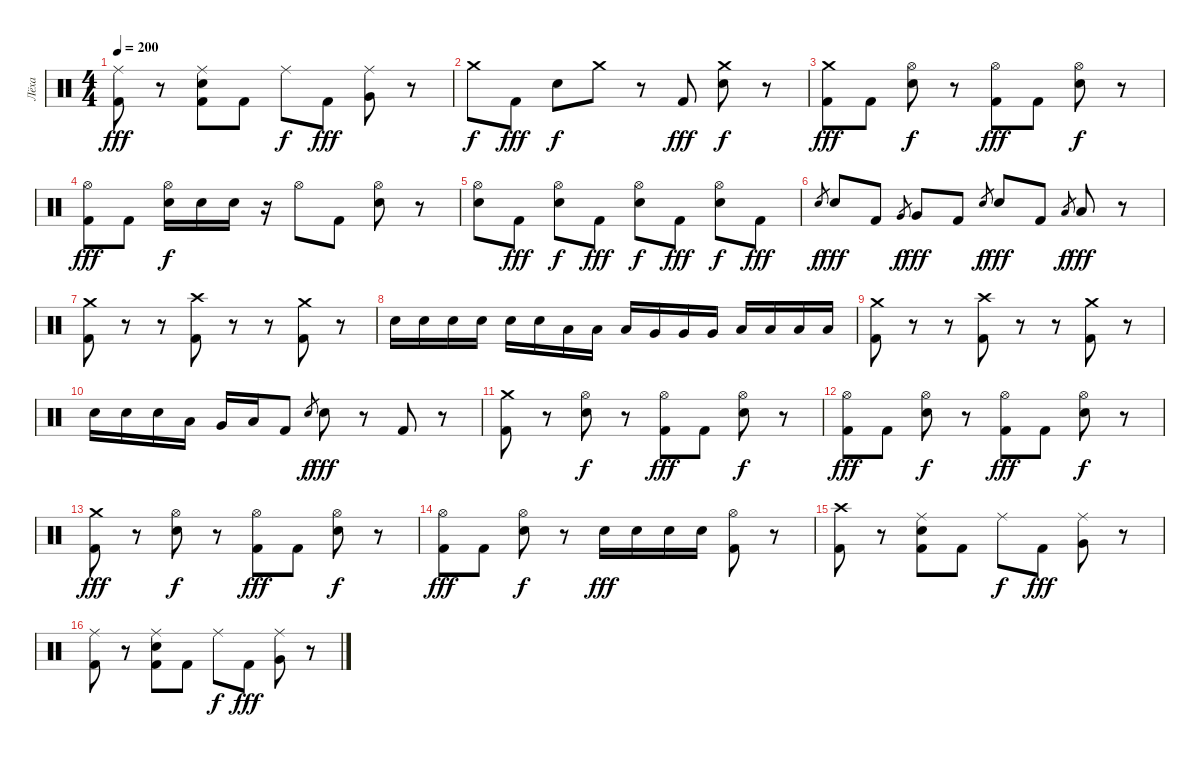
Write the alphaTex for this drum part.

\track ("Лёха" "Лёха") {instrument percussion}
\staff {score}
\articulation defaults
\ts (4 4)
\tempo 200
\clef neutral
\ks c
("Ride (middle)" "Kick (hit) 2").8{dy fff} r.8 ("Ride (middle)" "Electric Snare (hit)" "Kick (hit) 2").8 "Kick (hit) 2".8 "Ride (middle)".8{dy f} "Kick (hit) 2".8{dy fff} ("Ride (middle)" "Very Low Tom (hit)").8 r.8 |
"Crash medium (hit)".8{dy f} "Kick (hit) 2".8{dy fff} "Electric Snare (hit)".8{dy f} "Crash medium (hit)".8 r.8 "Kick (hit) 2".8{dy fff} ("Crash medium (hit)" "Electric Snare (hit)").8{dy f} r.8 |
("Crash medium (hit)" "Kick (hit) 2").8{dy fff} "Kick (hit) 2".8 ("Hi-Hat (open)" "Electric Snare (hit)").8{dy f} r.8 ("Hi-Hat (open)" "Kick (hit) 2").8{dy fff} "Kick (hit) 2".8 ("Hi-Hat (open)" "Electric Snare (hit)").8{dy f} r.8 |
("Hi-Hat (open)" "Kick (hit) 2").8{dy fff} "Kick (hit) 2".8 ("Hi-Hat (open)" "Electric Snare (hit)").16{dy f} "Electric Snare (hit)".16 "Electric Snare (hit)".16 r.16 "Hi-Hat (open)".8 "Kick (hit) 2".8 ("Hi-Hat (open)" "Electric Snare (hit)").8 r.8 |
("Hi-Hat (open)" "Electric Snare (hit)").8 "Kick (hit) 2".8{dy fff} ("Hi-Hat (open)" "Electric Snare (hit)").8{dy f} "Kick (hit) 2".8{dy fff} ("Hi-Hat (open)" "Electric Snare (hit)").8{dy f} "Kick (hit) 2".8{dy fff} ("Hi-Hat (open)" "Electric Snare (hit)").8{dy f} "Kick (hit) 2".8{dy fff} |
"Electric Snare (hit)".8{gr dy f} "Electric Snare (hit)".8{dy fff} "Kick (hit) 2".8 "Very Low Tom (hit)".8{gr dy f} "Very Low Tom (hit)".8{dy fff} "Kick (hit) 2".8 "Electric Snare (hit)".8{gr dy f} "Electric Snare (hit)".8{dy fff} "Kick (hit) 2".8 "Low Floor Tom (hit)".8{gr dy f} "Low Floor Tom (hit)".8{dy fff} r.8 |
("Crash medium (hit)" "Kick (hit) 2").8 r.8 r.8 ("Crash high (hit)" "Kick (hit) 2").8 r.8 r.8 ("Crash medium (hit)" "Kick (hit) 2").8 r.8 |
"Electric Snare (hit)".16 "Electric Snare (hit)".16 "Electric Snare (hit)".16 "Electric Snare (hit)".16 "Electric Snare (hit)".16 "Electric Snare (hit)".16 "Low Tom (hit)".16 "Low Tom (hit)".16 "Low Tom (hit)".16 "Very Low Tom (hit)".16 "Very Low Tom (hit)".16 "Very Low Tom (hit)".16 "Low Floor Tom (hit)".16 "Low Floor Tom (hit)".16 "Low Floor Tom (hit)".16 "Low Floor Tom (hit)".16 |
("Crash medium (hit)" "Kick (hit) 2").8 r.8 r.8 ("Crash high (hit)" "Kick (hit) 2").8 r.8 r.8 ("Crash medium (hit)" "Kick (hit) 2").8 r.8 |
"Electric Snare (hit)".16 "Electric Snare (hit)".16 "Electric Snare (hit)".16 "Low Tom (hit)".16 "Very Low Tom (hit)".16 "Low Floor Tom (hit)".16 "Kick (hit) 2".8 "Electric Snare (hit)".8{gr dy f} "Electric Snare (hit)".8{dy fff} r.8 "Kick (hit) 2".8 r.8 |
("Crash medium (hit)" "Kick (hit) 2").8 r.8 ("Hi-Hat (open)" "Electric Snare (hit)").8{dy f} r.8 ("Hi-Hat (open)" "Kick (hit) 2").8{dy fff} "Kick (hit) 2".8 ("Hi-Hat (open)" "Electric Snare (hit)").8{dy f} r.8 |
("Hi-Hat (open)" "Kick (hit) 2").8{dy fff} "Kick (hit) 2".8 ("Hi-Hat (open)" "Electric Snare (hit)").8{dy f} r.8 ("Hi-Hat (open)" "Kick (hit) 2").8{dy fff} "Kick (hit) 2".8 ("Hi-Hat (open)" "Electric Snare (hit)").8{dy f} r.8 |
("Crash medium (hit)" "Kick (hit) 2").8{dy fff} r.8 ("Hi-Hat (open)" "Electric Snare (hit)").8{dy f} r.8 ("Hi-Hat (open)" "Kick (hit) 2").8{dy fff} "Kick (hit) 2".8 ("Hi-Hat (open)" "Electric Snare (hit)").8{dy f} r.8 |
("Hi-Hat (open)" "Kick (hit) 2").8{dy fff} "Kick (hit) 2".8 ("Hi-Hat (open)" "Electric Snare (hit)").8{dy f} r.8 "Electric Snare (hit)".16{dy fff} "Electric Snare (hit)".16 "Electric Snare (hit)".16 "Electric Snare (hit)".16 ("Hi-Hat (open)" "Kick (hit) 2").8 r.8 |
("Crash high (hit)" "Kick (hit) 2").8 r.8 ("Ride (middle)" "Electric Snare (hit)" "Kick (hit) 2").8 "Kick (hit) 2".8 "Ride (middle)".8{dy f} "Kick (hit) 2".8{dy fff} ("Ride (middle)" "Very Low Tom (hit)").8 r.8 |
("Ride (middle)" "Kick (hit) 2").8 r.8 ("Ride (middle)" "Electric Snare (hit)" "Kick (hit) 2").8 "Kick (hit) 2".8 "Ride (middle)".8{dy f} "Kick (hit) 2".8{dy fff} ("Ride (middle)" "Very Low Tom (hit)").8 r.8
